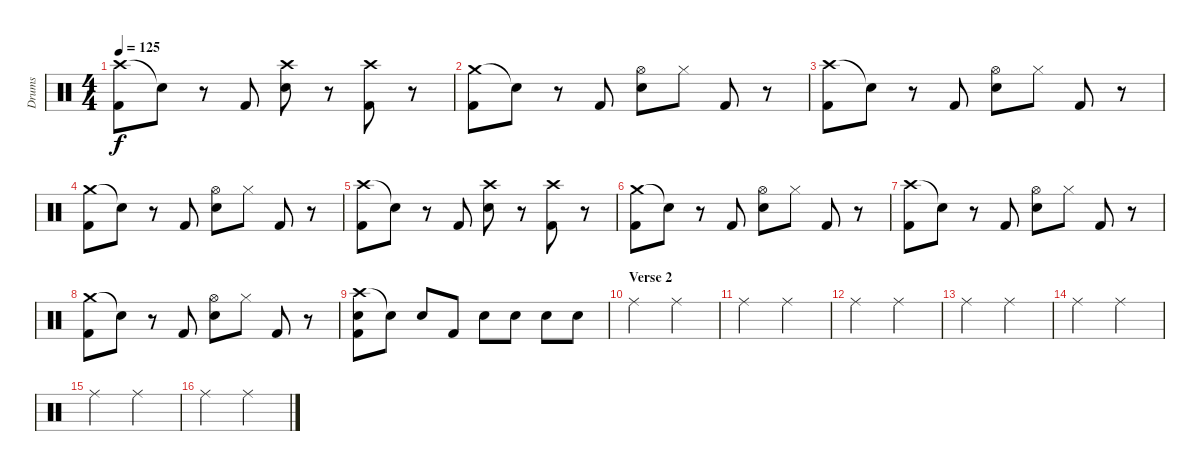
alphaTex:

\track ("Drums" "Drums") {instrument percussion}
\staff {score}
\articulation defaults
\ts (4 4)
\tempo 125
\clef neutral
\ks c
("Crash high (hit)" "Kick (hit) 2").8{dy f} "Snare (hit)"{t}.8 r.8 "Kick (hit) 2".8 ("Crash high (hit)" "Electric Snare (hit)").8 r.8 ("Crash high (hit)" "Kick (hit) 2").8 r.8 |
("Crash medium (hit)" "Kick (hit) 2").8 "Snare (hit)"{t}.8 r.8 "Kick (hit) 2".8 ("Hi-Hat (open)" "Electric Snare (hit)").8 "Hi-Hat (closed)".8 "Kick (hit) 2".8 r.8 |
("Crash high (hit)" "Kick (hit) 2").8 "Snare (hit)"{t}.8 r.8 "Kick (hit) 2".8 ("Hi-Hat (open)" "Electric Snare (hit)").8 "Hi-Hat (closed)".8 "Kick (hit) 2".8 r.8 |
("Crash medium (hit)" "Kick (hit) 2").8 "Snare (hit)"{t}.8 r.8 "Kick (hit) 2".8 ("Hi-Hat (open)" "Electric Snare (hit)").8 "Hi-Hat (closed)".8 "Kick (hit) 2".8 r.8 |
("Crash high (hit)" "Kick (hit) 2").8 "Snare (hit)"{t}.8 r.8 "Kick (hit) 2".8 ("Crash high (hit)" "Electric Snare (hit)").8 r.8 ("Crash high (hit)" "Kick (hit) 2").8 r.8 |
("Crash medium (hit)" "Kick (hit) 2").8 "Snare (hit)"{t}.8 r.8 "Kick (hit) 2".8 ("Hi-Hat (open)" "Electric Snare (hit)").8 "Hi-Hat (closed)".8 "Kick (hit) 2".8 r.8 |
("Crash high (hit)" "Kick (hit) 2").8 "Snare (hit)"{t}.8 r.8 "Kick (hit) 2".8 ("Hi-Hat (open)" "Electric Snare (hit)").8 "Hi-Hat (closed)".8 "Kick (hit) 2".8 r.8 |
("Crash medium (hit)" "Kick (hit) 2").8 "Snare (hit)"{t}.8 r.8 "Kick (hit) 2".8 ("Hi-Hat (open)" "Electric Snare (hit)").8 "Hi-Hat (closed)".8 "Kick (hit) 2".8 r.8 |
("Crash high (hit)" "Electric Snare (hit)" "Kick (hit) 2").8 "Snare (hit)"{t}.8 "Electric Snare (hit)".8 "Kick (hit) 2".8 "Electric Snare (hit)".8 "Electric Snare (hit)".8 "Electric Snare (hit)".8 "Electric Snare (hit)".8 |
\section ("" "Verse 2")
"Ride (middle)".2 "Ride (middle)".2 |
"Ride (middle)".2 "Ride (middle)".2 |
"Ride (middle)".2 "Ride (middle)".2 |
"Ride (middle)".2 "Ride (middle)".2 |
"Ride (middle)".2 "Ride (middle)".2 |
"Ride (middle)".2 "Ride (middle)".2 |
"Ride (middle)".2 "Ride (middle)".2
